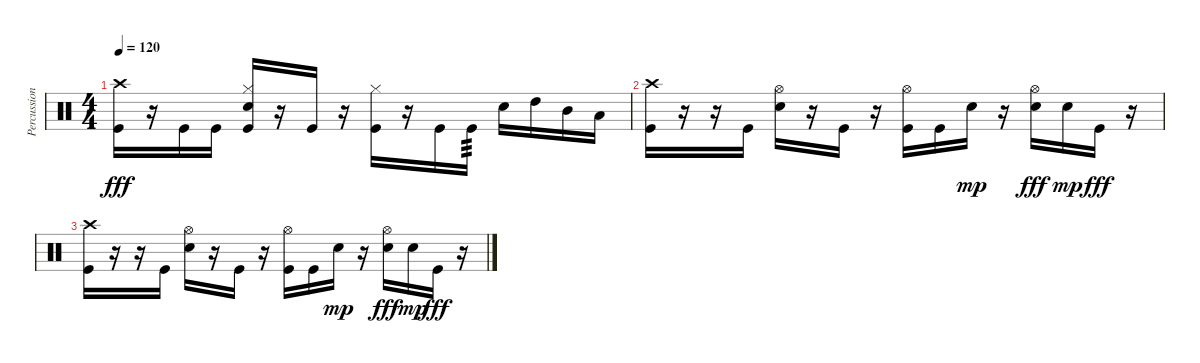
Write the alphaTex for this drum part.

\track ("Percussion" "Percussion") {instrument percussion}
\staff {score}
\articulation defaults
\ts (4 4)
\tempo 120
\clef neutral
\ks c
("Crash high (hit)" "Kick (hit)").16{dy fff} r.16 "Kick (hit)".16 "Kick (hit)".16 ("Hi-Hat (closed)" "Electric Snare (hit)" "Kick (hit)").16 r.16 "Kick (hit)".16 r.16 ("Hi-Hat (closed)" "Kick (hit)").16 r.16 "Kick (hit)".16 "Kick (hit)".16{tp 3} "Electric Snare (hit)".16 "High Tom (hit)".16 "Mid Tom (hit)".16 "Low Tom (hit)".16 |
("Crash high (hit)" "Kick (hit)").16 r.16 r.16 "Kick (hit)".16 ("Hi-Hat (open)" "Electric Snare (hit)").16 r.16 "Kick (hit)".16 r.16 ("Hi-Hat (open)" "Kick (hit)").16 "Kick (hit)".16 "Electric Snare (hit)".16{dy mp} r.16 ("Hi-Hat (open)" "Electric Snare (hit)").16{dy fff} "Electric Snare (hit)".16{dy mp} "Kick (hit)".16{dy fff} r.16 |
("Crash high (hit)" "Kick (hit)").16 r.16 r.16 "Kick (hit)".16 ("Hi-Hat (open)" "Electric Snare (hit)").16 r.16 "Kick (hit)".16 r.16 ("Hi-Hat (open)" "Kick (hit)").16 "Kick (hit)".16 "Electric Snare (hit)".16{dy mp} r.16 ("Hi-Hat (open)" "Electric Snare (hit)").16{dy fff} "Electric Snare (hit)".16{dy mp} "Kick (hit)".16{dy fff} r.16
